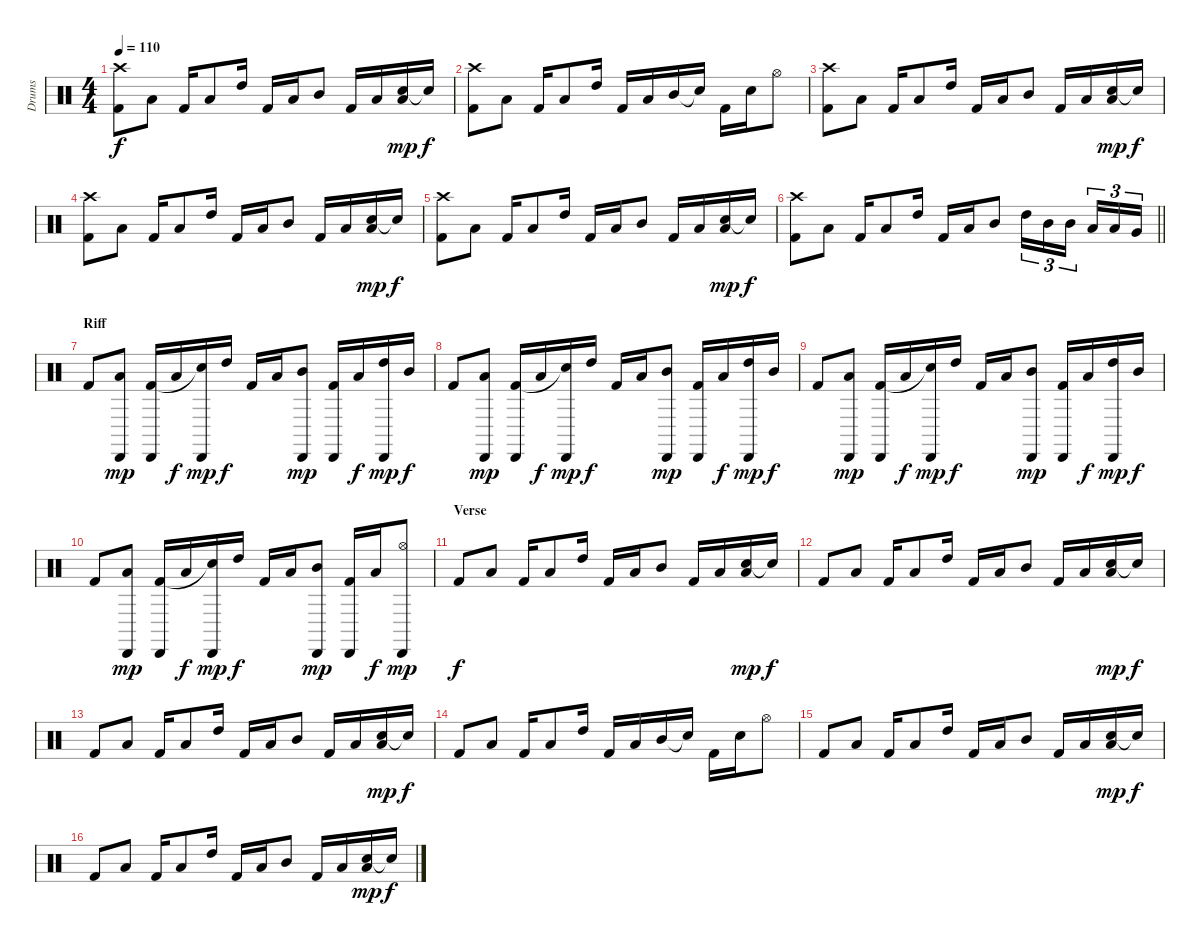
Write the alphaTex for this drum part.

\track ("Drums" "Drums") {instrument percussion}
\staff {score}
\articulation defaults
\ts (4 4)
\tempo 110
\clef neutral
\ks c
("Crash high (hit)" "Kick (hit) 2").8{dy f} "Low Tom (hit)".8 "Kick (hit) 2".16 "Low Tom (hit)".8 "High Tom (hit)".16 "Kick (hit) 2".16 "Low Tom (hit)".16 "Mid Tom (hit)".8 "Kick (hit) 2".16 "Low Tom (hit)".16 ("Snare (hit) 2" "Low Tom (hit)").16{dy mp} "Snare (hit)"{t}.16{dy f} |
("Crash high (hit)" "Kick (hit) 2").8 "Low Tom (hit)".8 "Kick (hit) 2".16 "Low Tom (hit)".8 "High Tom (hit)".16 "Kick (hit) 2".16 "Low Tom (hit)".16 "Mid Tom (hit)".16 "Snare (hit)"{t}.16 "Kick (hit) 2".16 "Snare (hit) 2".16 "Hi-Hat (open)".8 |
("Crash high (hit)" "Kick (hit) 2").8 "Low Tom (hit)".8 "Kick (hit) 2".16 "Low Tom (hit)".8 "High Tom (hit)".16 "Kick (hit) 2".16 "Low Tom (hit)".16 "Mid Tom (hit)".8 "Kick (hit) 2".16 "Low Tom (hit)".16 ("Snare (hit) 2" "Low Tom (hit)").16{dy mp} "Snare (hit)"{t}.16{dy f} |
("Crash high (hit)" "Kick (hit) 2").8 "Low Tom (hit)".8 "Kick (hit) 2".16 "Low Tom (hit)".8 "High Tom (hit)".16 "Kick (hit) 2".16 "Low Tom (hit)".16 "Mid Tom (hit)".8 "Kick (hit) 2".16 "Low Tom (hit)".16 ("Snare (hit) 2" "Low Tom (hit)").16{dy mp} "Snare (hit)"{t}.16{dy f} |
("Crash high (hit)" "Kick (hit) 2").8 "Low Tom (hit)".8 "Kick (hit) 2".16 "Low Tom (hit)".8 "High Tom (hit)".16 "Kick (hit) 2".16 "Low Tom (hit)".16 "Mid Tom (hit)".8 "Kick (hit) 2".16 "Low Tom (hit)".16 ("Snare (hit) 2" "Low Tom (hit)").16{dy mp} "Snare (hit)"{t}.16{dy f} |
\barLineRight lightlight
("Crash high (hit)" "Kick (hit) 2").8 "Low Tom (hit)".8 "Kick (hit) 2".16 "Low Tom (hit)".8 "High Tom (hit)".16 "Kick (hit) 2".16 "Low Tom (hit)".16 "Mid Tom (hit)".8 "High Tom (hit)".16{tu (3 2)} "Mid Tom (hit)".16{tu (3 2)} "Mid Tom (hit)".16{tu (3 2) beam splitsecondary} "Low Tom (hit)".16{tu (3 2)} "Low Tom (hit)".16{tu (3 2)} "Very Low Tom (hit)".16{tu (3 2)} |
\section ("" "Riff")
"Kick (hit) 2".8 ("Cabasa (hit)" "Low Tom (hit)").8{dy mp} ("Cabasa (hit)" "Kick (hit) 2").16 "Low Tom (hit)".16{dy f} ("Cabasa (hit)" "Snare (hit)"{t}).16{dy mp} "High Tom (hit)".16{dy f} "Kick (hit) 2".16 "Low Tom (hit)".16 ("Cabasa (hit)" "Mid Tom (hit)").8{dy mp} ("Cabasa (hit)" "Kick (hit) 2").16 "Low Tom (hit)".16{dy f} ("Cabasa (hit)" "High Tom (hit)").16{dy mp} "Mid Tom (hit)".16{dy f} |
"Kick (hit) 2".8 ("Cabasa (hit)" "Low Tom (hit)").8{dy mp} ("Cabasa (hit)" "Kick (hit) 2").16 "Low Tom (hit)".16{dy f} ("Cabasa (hit)" "Snare (hit)"{t}).16{dy mp} "High Tom (hit)".16{dy f} "Kick (hit) 2".16 "Low Tom (hit)".16 ("Cabasa (hit)" "Mid Tom (hit)").8{dy mp} ("Cabasa (hit)" "Kick (hit) 2").16 "Low Tom (hit)".16{dy f} ("Cabasa (hit)" "High Tom (hit)").16{dy mp} "Mid Tom (hit)".16{dy f} |
"Kick (hit) 2".8 ("Cabasa (hit)" "Low Tom (hit)").8{dy mp} ("Cabasa (hit)" "Kick (hit) 2").16 "Low Tom (hit)".16{dy f} ("Cabasa (hit)" "Snare (hit)"{t}).16{dy mp} "High Tom (hit)".16{dy f} "Kick (hit) 2".16 "Low Tom (hit)".16 ("Cabasa (hit)" "Mid Tom (hit)").8{dy mp} ("Cabasa (hit)" "Kick (hit) 2").16 "Low Tom (hit)".16{dy f} ("Cabasa (hit)" "High Tom (hit)").16{dy mp} "Mid Tom (hit)".16{dy f} |
"Kick (hit) 2".8 ("Cabasa (hit)" "Low Tom (hit)").8{dy mp} ("Cabasa (hit)" "Kick (hit) 2").16 "Low Tom (hit)".16{dy f} ("Cabasa (hit)" "Snare (hit)"{t}).16{dy mp} "High Tom (hit)".16{dy f} "Kick (hit) 2".16 "Low Tom (hit)".16 ("Cabasa (hit)" "Mid Tom (hit)").8{dy mp} ("Cabasa (hit)" "Kick (hit) 2").16 "Low Tom (hit)".16{dy f} ("Cabasa (hit)" "Hi-Hat (open)").8{dy mp} |
\section ("" "Verse")
"Kick (hit) 2".8{dy f} "Low Tom (hit)".8 "Kick (hit) 2".16 "Low Tom (hit)".8 "High Tom (hit)".16 "Kick (hit) 2".16 "Low Tom (hit)".16 "Mid Tom (hit)".8 "Kick (hit) 2".16 "Low Tom (hit)".16 ("Snare (hit) 2" "Low Tom (hit)").16{dy mp} "Snare (hit)"{t}.16{dy f} |
"Kick (hit) 2".8 "Low Tom (hit)".8 "Kick (hit) 2".16 "Low Tom (hit)".8 "High Tom (hit)".16 "Kick (hit) 2".16 "Low Tom (hit)".16 "Mid Tom (hit)".8 "Kick (hit) 2".16 "Low Tom (hit)".16 ("Snare (hit) 2" "Low Tom (hit)").16{dy mp} "Snare (hit)"{t}.16{dy f} |
"Kick (hit) 2".8 "Low Tom (hit)".8 "Kick (hit) 2".16 "Low Tom (hit)".8 "High Tom (hit)".16 "Kick (hit) 2".16 "Low Tom (hit)".16 "Mid Tom (hit)".8 "Kick (hit) 2".16 "Low Tom (hit)".16 ("Snare (hit) 2" "Low Tom (hit)").16{dy mp} "Snare (hit)"{t}.16{dy f} |
"Kick (hit) 2".8 "Low Tom (hit)".8 "Kick (hit) 2".16 "Low Tom (hit)".8 "High Tom (hit)".16 "Kick (hit) 2".16 "Low Tom (hit)".16 "Mid Tom (hit)".16 "Snare (hit)"{t}.16 "Kick (hit) 2".16 "Snare (hit) 2".16 "Hi-Hat (open)".8 |
"Kick (hit) 2".8 "Low Tom (hit)".8 "Kick (hit) 2".16 "Low Tom (hit)".8 "High Tom (hit)".16 "Kick (hit) 2".16 "Low Tom (hit)".16 "Mid Tom (hit)".8 "Kick (hit) 2".16 "Low Tom (hit)".16 ("Snare (hit) 2" "Low Tom (hit)").16{dy mp} "Snare (hit)"{t}.16{dy f} |
"Kick (hit) 2".8 "Low Tom (hit)".8 "Kick (hit) 2".16 "Low Tom (hit)".8 "High Tom (hit)".16 "Kick (hit) 2".16 "Low Tom (hit)".16 "Mid Tom (hit)".8 "Kick (hit) 2".16 "Low Tom (hit)".16 ("Snare (hit) 2" "Low Tom (hit)").16{dy mp} "Snare (hit)"{t}.16{dy f}
